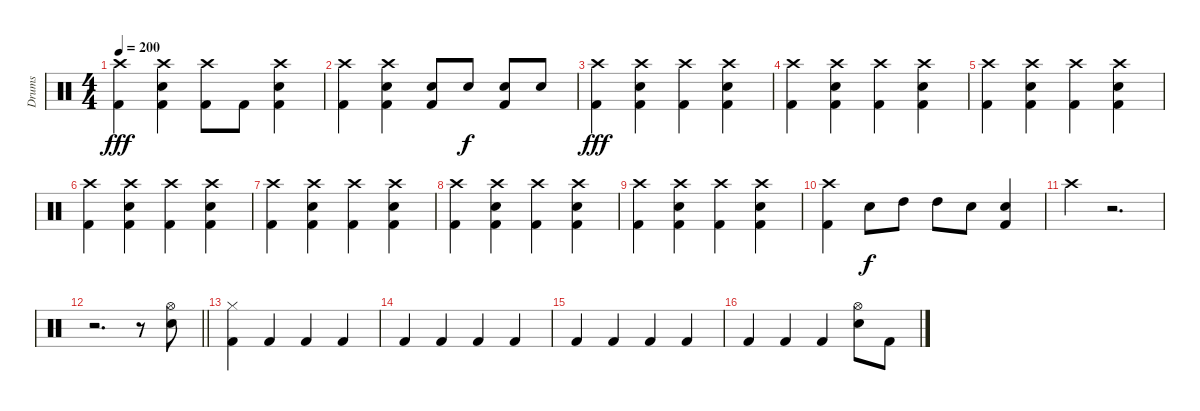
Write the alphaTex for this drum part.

\track ("Drums" "Drums") {instrument percussion}
\staff {score}
\articulation defaults
\ts (4 4)
\tempo 200
\clef neutral
\ks c
("Crash high (hit)" "Kick (hit) 2").4{dy fff} ("Crash high (hit)" "Snare (hit) 2" "Kick (hit) 2").4 ("Crash high (hit)" "Kick (hit) 2").8 "Kick (hit) 2".8 ("Crash high (hit)" "Snare (hit) 2" "Kick (hit) 2").4 |
("Crash high (hit)" "Kick (hit) 2").4 ("Crash high (hit)" "Snare (hit) 2" "Kick (hit) 2").4 ("Snare (hit) 2" "Kick (hit) 2").8 "Snare (hit) 2".8{dy f} ("Snare (hit) 2" "Kick (hit) 2").8 "Snare (hit) 2".8 |
("Crash high (hit)" "Kick (hit) 2").4{dy fff} ("Crash high (hit)" "Snare (hit) 2" "Kick (hit) 2").4 ("Crash high (hit)" "Kick (hit) 2").4 ("Crash high (hit)" "Snare (hit) 2" "Kick (hit) 2").4 |
("Crash high (hit)" "Kick (hit) 2").4 ("Crash high (hit)" "Snare (hit) 2" "Kick (hit) 2").4 ("Crash high (hit)" "Kick (hit) 2").4 ("Crash high (hit)" "Snare (hit) 2" "Kick (hit) 2").4 |
("Crash high (hit)" "Kick (hit) 2").4 ("Crash high (hit)" "Snare (hit) 2" "Kick (hit) 2").4 ("Crash high (hit)" "Kick (hit) 2").4 ("Crash high (hit)" "Snare (hit) 2" "Kick (hit) 2").4 |
("Crash high (hit)" "Kick (hit) 2").4 ("Crash high (hit)" "Snare (hit) 2" "Kick (hit) 2").4 ("Crash high (hit)" "Kick (hit) 2").4 ("Crash high (hit)" "Snare (hit) 2" "Kick (hit) 2").4 |
("Crash high (hit)" "Kick (hit) 2").4 ("Crash high (hit)" "Snare (hit) 2" "Kick (hit) 2").4 ("Crash high (hit)" "Kick (hit) 2").4 ("Crash high (hit)" "Snare (hit) 2" "Kick (hit) 2").4 |
("Crash high (hit)" "Kick (hit) 2").4 ("Crash high (hit)" "Snare (hit) 2" "Kick (hit) 2").4 ("Crash high (hit)" "Kick (hit) 2").4 ("Crash high (hit)" "Snare (hit) 2" "Kick (hit) 2").4 |
("Crash high (hit)" "Kick (hit) 2").4 ("Crash high (hit)" "Snare (hit) 2" "Kick (hit) 2").4 ("Crash high (hit)" "Kick (hit) 2").4 ("Crash high (hit)" "Snare (hit) 2" "Kick (hit) 2").4 |
("Crash high (hit)" "Kick (hit) 2").4 "Snare (hit) 2".8{dy f} "High Tom (hit)".8 "High Tom (hit)".8 "Snare (hit) 2".8 ("Snare (hit) 2" "Kick (hit) 2").4 |
"Crash high (hit)".4 r.2{d} |
\barLineRight lightlight
r.2{d} r.8 ("Electric Snare (hit)" "Hi-Hat (open)").8 |
("Hi-Hat (closed)" "Kick (hit) 2").4 "Kick (hit) 2".4 "Kick (hit) 2".4 "Kick (hit) 2".4 |
"Kick (hit) 2".4 "Kick (hit) 2".4 "Kick (hit) 2".4 "Kick (hit) 2".4 |
"Kick (hit) 2".4 "Kick (hit) 2".4 "Kick (hit) 2".4 "Kick (hit) 2".4 |
"Kick (hit) 2".4 "Kick (hit) 2".4 "Kick (hit) 2".4 ("Electric Snare (hit)" "Hi-Hat (open)").8 "Kick (hit) 2".8
